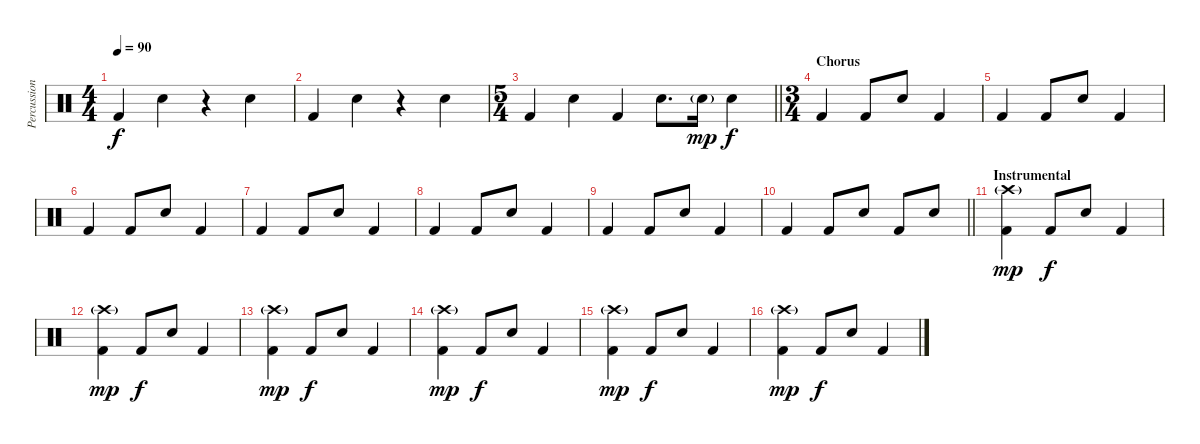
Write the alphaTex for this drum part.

\track ("Percussion" "Percussion") {instrument percussion}
\staff {score}
\articulation defaults
\ts (4 4)
\tempo 90
\clef neutral
\ks c "Kick (hit) 2".4{dy f} "Snare (hit) 2".4
r.4 "Snare (hit) 2".4 |
"Kick (hit) 2".4 "Snare (hit) 2".4 r.4 "Snare (hit) 2".4 |
\ts (5 4)
\barLineRight lightlight "Kick (hit) 2".4 "Snare (hit) 2".4 "Kick (hit) 2".4 "Snare (hit) 2".8{d} "Snare (hit) 2"{g}.16{dy mp} "Snare (hit) 2".4{dy f}
|
\ts (3 4)
\section ("" "Chorus")
"Kick (hit) 2".4 "Kick (hit) 2".8 "Snare (hit) 2".8 "Kick (hit) 2".4 |
"Kick (hit) 2".4 "Kick (hit) 2".8 "Snare (hit) 2".8 "Kick (hit) 2".4 |
"Kick (hit) 2".4 "Kick (hit) 2".8 "Snare (hit) 2".8 "Kick (hit) 2".4 |
"Kick (hit) 2".4 "Kick (hit) 2".8 "Snare (hit) 2".8 "Kick (hit) 2".4 |
"Kick (hit) 2".4 "Kick (hit) 2".8 "Snare (hit) 2".8 "Kick (hit) 2".4 |
"Kick (hit) 2".4 "Kick (hit) 2".8 "Snare (hit) 2".8 "Kick (hit) 2".4 |
\barLineRight lightlight "Kick (hit) 2".4 "Kick (hit) 2".8 "Snare (hit) 2".8 "Kick (hit) 2".8 "Snare (hit) 2".8
|
\section ("" "Instrumental")
("Crash high (hit)"{g} "Kick (hit) 2").4{dy mp} "Kick (hit) 2".8{dy f} "Snare (hit) 2".8 "Kick (hit) 2".4 |
("Crash high (hit)"{g} "Kick (hit) 2").4{dy mp} "Kick (hit) 2".8{dy f} "Snare (hit) 2".8 "Kick (hit) 2".4 |
("Crash high (hit)"{g} "Kick (hit) 2").4{dy mp} "Kick (hit) 2".8{dy f} "Snare (hit) 2".8 "Kick (hit) 2".4 |
("Crash high (hit)"{g} "Kick (hit) 2").4{dy mp} "Kick (hit) 2".8{dy f} "Snare (hit) 2".8 "Kick (hit) 2".4 |
("Crash high (hit)"{g} "Kick (hit) 2").4{dy mp} "Kick (hit) 2".8{dy f} "Snare (hit) 2".8 "Kick (hit) 2".4 |
("Crash high (hit)"{g} "Kick (hit) 2").4{dy mp} "Kick (hit) 2".8{dy f} "Snare (hit) 2".8 "Kick (hit) 2".4
